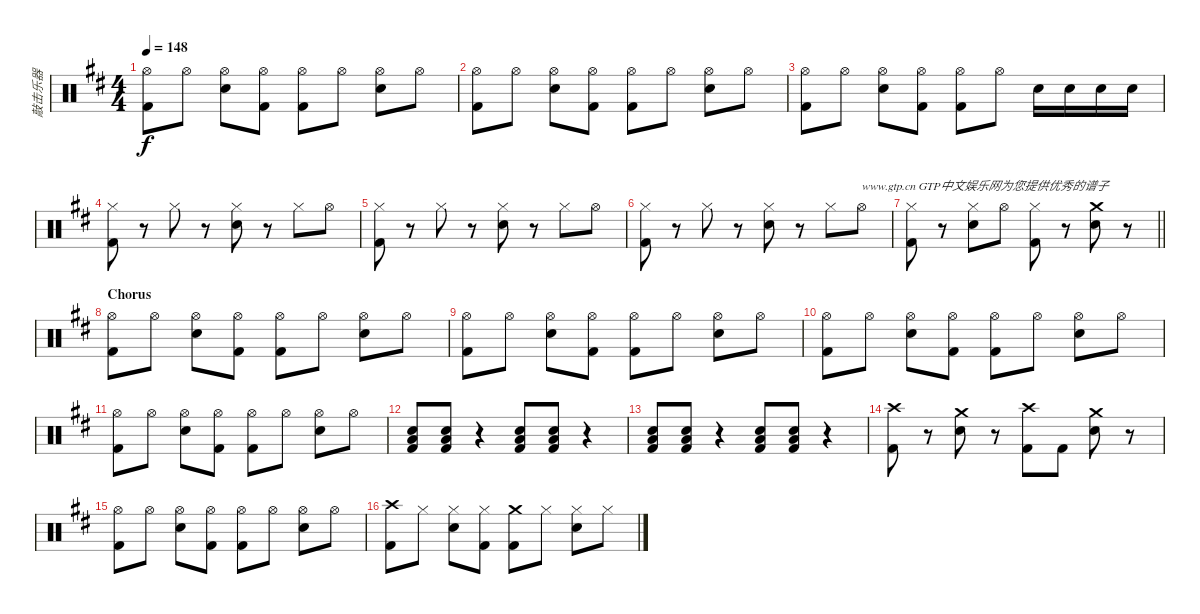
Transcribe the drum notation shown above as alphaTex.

\track ("敲击乐器" "敲击乐器") {instrument percussion}
\staff {score}
\articulation defaults
\ts (4 4)
\tempo 148
\clef neutral
\ks d
("Hi-Hat (open)" "Kick (hit) 2").8{dy f} "Hi-Hat (open)".8 ("Hi-Hat (open)" "Electric Snare (hit)").8 ("Hi-Hat (open)" "Kick (hit) 2").8 ("Hi-Hat (open)" "Kick (hit) 2").8 "Hi-Hat (open)".8 ("Hi-Hat (open)" "Electric Snare (hit)").8 "Hi-Hat (open)".8 |
("Hi-Hat (open)" "Kick (hit) 2").8 "Hi-Hat (open)".8 ("Hi-Hat (open)" "Electric Snare (hit)").8 ("Hi-Hat (open)" "Kick (hit) 2").8 ("Hi-Hat (open)" "Kick (hit) 2").8 "Hi-Hat (open)".8 ("Hi-Hat (open)" "Electric Snare (hit)").8 "Hi-Hat (open)".8 |
("Hi-Hat (open)" "Kick (hit) 2").8 "Hi-Hat (open)".8 ("Hi-Hat (open)" "Electric Snare (hit)").8 ("Hi-Hat (open)" "Kick (hit) 2").8 ("Hi-Hat (open)" "Kick (hit) 2").8 "Hi-Hat (open)".8 "Electric Snare (hit)".16 "Electric Snare (hit)".16 "Electric Snare (hit)".16 "Electric Snare (hit)".16 |
("Hi-Hat (closed)" "Kick (hit) 2").8 r.8 "Hi-Hat (closed)".8 r.8 ("Hi-Hat (closed)" "Electric Snare (hit)").8 r.8 "Hi-Hat (closed)".8 "Hi-Hat (open)".8 |
("Hi-Hat (closed)" "Kick (hit) 2").8 r.8 "Hi-Hat (closed)".8 r.8 ("Hi-Hat (closed)" "Electric Snare (hit)").8 r.8 "Hi-Hat (closed)".8 "Hi-Hat (open)".8 |
("Hi-Hat (closed)" "Kick (hit) 2").8 r.8 "Hi-Hat (closed)".8 r.8 ("Hi-Hat (closed)" "Electric Snare (hit)").8 r.8 "Hi-Hat (closed)".8 "Hi-Hat (open)".8{txt "www.gtp.cn GTP中文娱乐网为您提供优秀的谱子"} |
\barLineRight lightlight
("Hi-Hat (closed)" "Kick (hit) 2").8 r.8 ("Hi-Hat (closed)" "Electric Snare (hit)").8 "Hi-Hat (open)".8 ("Hi-Hat (closed)" "Kick (hit) 2").8 r.8 ("Crash medium (hit)" "Electric Snare (hit)").8 r.8 |
\section ("" "Chorus")
("Hi-Hat (open)" "Kick (hit) 2").8 "Hi-Hat (open)".8 ("Hi-Hat (open)" "Electric Snare (hit)").8 ("Hi-Hat (open)" "Kick (hit) 2").8 ("Hi-Hat (open)" "Kick (hit) 2").8 "Hi-Hat (open)".8 ("Hi-Hat (open)" "Electric Snare (hit)").8 "Hi-Hat (open)".8 |
("Hi-Hat (open)" "Kick (hit) 2").8 "Hi-Hat (open)".8 ("Hi-Hat (open)" "Electric Snare (hit)").8 ("Hi-Hat (open)" "Kick (hit) 2").8 ("Hi-Hat (open)" "Kick (hit) 2").8 "Hi-Hat (open)".8 ("Hi-Hat (open)" "Electric Snare (hit)").8 "Hi-Hat (open)".8 |
("Hi-Hat (open)" "Kick (hit) 2").8 "Hi-Hat (open)".8 ("Hi-Hat (open)" "Electric Snare (hit)").8 ("Hi-Hat (open)" "Kick (hit) 2").8 ("Hi-Hat (open)" "Kick (hit) 2").8 "Hi-Hat (open)".8 ("Hi-Hat (open)" "Electric Snare (hit)").8 "Hi-Hat (open)".8 |
("Hi-Hat (open)" "Kick (hit) 2").8 "Hi-Hat (open)".8 ("Hi-Hat (open)" "Electric Snare (hit)").8 ("Hi-Hat (open)" "Kick (hit) 2").8 ("Hi-Hat (open)" "Kick (hit) 2").8 "Hi-Hat (open)".8 ("Hi-Hat (open)" "Electric Snare (hit)").8 "Hi-Hat (open)".8 |
("Low Floor Tom (hit)" "Electric Snare (hit)" "Kick (hit) 2").8 ("Low Floor Tom (hit)" "Electric Snare (hit)" "Kick (hit) 2").8 r.4 ("Low Floor Tom (hit)" "Electric Snare (hit)" "Kick (hit) 2").8 ("Low Floor Tom (hit)" "Electric Snare (hit)" "Kick (hit) 2").8 r.4 |
("Low Floor Tom (hit)" "Electric Snare (hit)" "Kick (hit) 2").8 ("Low Floor Tom (hit)" "Electric Snare (hit)" "Kick (hit) 2").8 r.4 ("Low Floor Tom (hit)" "Electric Snare (hit)" "Kick (hit) 2").8 ("Low Floor Tom (hit)" "Electric Snare (hit)" "Kick (hit) 2").8 r.4 |
("Crash high (hit)" "Kick (hit) 2").8 r.8 ("Crash medium (hit)" "Electric Snare (hit)").8 r.8 ("Crash high (hit)" "Kick (hit) 2").8 "Kick (hit) 2".8 ("Crash medium (hit)" "Electric Snare (hit)").8 r.8 |
("Hi-Hat (open)" "Kick (hit) 2").8 "Hi-Hat (open)".8 ("Hi-Hat (open)" "Electric Snare (hit)").8 ("Hi-Hat (open)" "Kick (hit) 2").8 ("Hi-Hat (open)" "Kick (hit) 2").8 "Hi-Hat (open)".8 ("Hi-Hat (open)" "Electric Snare (hit)").8 "Hi-Hat (open)".8 |
("Crash high (hit)" "Kick (hit) 2").8 "Hi-Hat (closed)".8 ("Hi-Hat (closed)" "Electric Snare (hit)").8 ("Hi-Hat (closed)" "Kick (hit) 2").8 ("Crash medium (hit)" "Kick (hit) 2").8 "Hi-Hat (closed)".8 ("Hi-Hat (closed)" "Electric Snare (hit)").8 "Hi-Hat (closed)".8
